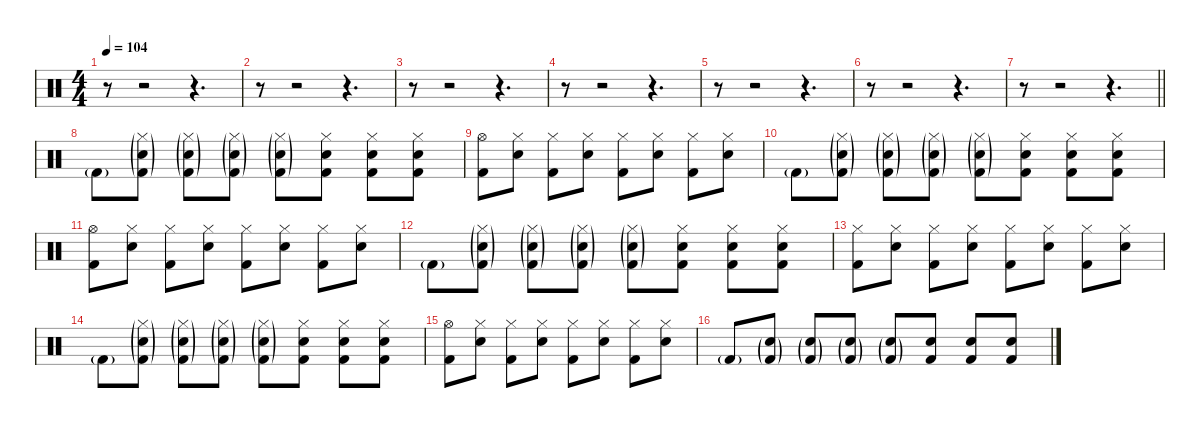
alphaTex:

\defaultSystemsLayout 4
\hideDynamics
\bracketExtendMode nobrackets
\singleTrackTrackNamePolicy hidden
\multiTrackTrackNamePolicy hidden
\firstSystemTrackNameMode fullname
\firstSystemTrackNameOrientation horizontal
\otherSystemsTrackNameOrientation horizontal
\track ("Drums" "drm.") {instrument percussion}
\staff {score}
\articulation defaults
\ts (4 4)
\tempo 104
\clef neutral
\ks c
r.8{dy f beam Down} r.2{beam Down} r.4{d beam Down} |
r.8{beam Down} r.2{beam Down} r.4{d beam Down} |
r.8{beam Down} r.2{beam Down} r.4{d beam Down} |
r.8{beam Down} r.2{beam Down} r.4{d beam Down} |
r.8{beam Down} r.2{beam Down} r.4{d beam Down} |
r.8{beam Down} r.2{beam Down} r.4{d beam Down} |
\barLineRight lightlight
r.8{beam Down} r.2{beam Down} r.4{d beam Down} |
\section ("" "")
"Kick (hit) 2"{g}.8{dy mp beam Down} ("Hi-Hat (closed)"{g} "Snare (hit) 2"{g} "Kick (hit) 2"{g}).8{beam Down} ("Hi-Hat (closed)"{g} "Snare (hit) 2"{g} "Kick (hit) 2"{g}).8{beam Down} ("Hi-Hat (closed)"{g} "Snare (hit) 2"{g} "Kick (hit) 2"{g}).8{dy mf beam Down} ("Hi-Hat (closed)"{g} "Snare (hit) 2"{g} "Kick (hit) 2"{g}).8{beam Down} ("Hi-Hat (closed)" "Snare (hit) 2" "Kick (hit) 2").8{beam Down} ("Hi-Hat (closed)" "Snare (hit) 2" "Kick (hit) 2").8{beam Down} ("Hi-Hat (closed)" "Snare (hit) 2" "Kick (hit) 2").8{beam Down} |
("Hi-Hat (open)" "Kick (hit) 2").8{dy f beam Down} ("Hi-Hat (closed)" "Snare (hit) 2").8{beam Down} ("Hi-Hat (closed)" "Kick (hit) 2").8{beam Down} ("Hi-Hat (closed)" "Snare (hit) 2").8{beam Down} ("Hi-Hat (closed)" "Kick (hit) 2").8{beam Down} ("Hi-Hat (closed)" "Snare (hit) 2").8{beam Down} ("Hi-Hat (closed)" "Kick (hit) 2").8{beam Down} ("Hi-Hat (closed)" "Snare (hit) 2").8{beam Down} |
"Kick (hit) 2"{g}.8{dy mp beam Down} ("Hi-Hat (closed)"{g} "Snare (hit) 2"{g} "Kick (hit) 2"{g}).8{beam Down} ("Hi-Hat (closed)"{g} "Snare (hit) 2"{g} "Kick (hit) 2"{g}).8{beam Down} ("Hi-Hat (closed)"{g} "Snare (hit) 2"{g} "Kick (hit) 2"{g}).8{dy mf beam Down} ("Hi-Hat (closed)"{g} "Snare (hit) 2"{g} "Kick (hit) 2"{g}).8{beam Down} ("Hi-Hat (closed)" "Snare (hit) 2" "Kick (hit) 2").8{beam Down} ("Hi-Hat (closed)" "Snare (hit) 2" "Kick (hit) 2").8{beam Down} ("Hi-Hat (closed)" "Snare (hit) 2" "Kick (hit) 2").8{beam Down} |
("Hi-Hat (open)" "Kick (hit) 2").8{dy f beam Down} ("Hi-Hat (closed)" "Snare (hit) 2").8{beam Down} ("Hi-Hat (closed)" "Kick (hit) 2").8{beam Down} ("Hi-Hat (closed)" "Snare (hit) 2").8{beam Down} ("Hi-Hat (closed)" "Kick (hit) 2").8{beam Down} ("Hi-Hat (closed)" "Snare (hit) 2").8{beam Down} ("Hi-Hat (closed)" "Kick (hit) 2").8{beam Down} ("Hi-Hat (closed)" "Snare (hit) 2").8{beam Down} |
"Kick (hit) 2"{g}.8{dy mp beam Down} ("Hi-Hat (closed)"{g} "Snare (hit) 2"{g} "Kick (hit) 2"{g}).8{beam Down} ("Hi-Hat (closed)"{g} "Snare (hit) 2"{g} "Kick (hit) 2"{g}).8{beam Down} ("Hi-Hat (closed)"{g} "Snare (hit) 2"{g} "Kick (hit) 2"{g}).8{dy mf beam Down} ("Hi-Hat (closed)"{g} "Snare (hit) 2"{g} "Kick (hit) 2"{g}).8{beam Down} ("Hi-Hat (closed)" "Snare (hit) 2" "Kick (hit) 2").8{beam Down} ("Hi-Hat (closed)" "Snare (hit) 2" "Kick (hit) 2").8{beam Down} ("Hi-Hat (closed)" "Snare (hit) 2" "Kick (hit) 2").8{beam Down} |
("Hi-Hat (closed)" "Kick (hit) 2").8{dy f beam Down} ("Hi-Hat (closed)" "Snare (hit) 2").8{beam Down} ("Hi-Hat (closed)" "Kick (hit) 2").8{beam Down} ("Hi-Hat (closed)" "Snare (hit) 2").8{beam Down} ("Hi-Hat (closed)" "Kick (hit) 2").8{beam Down} ("Hi-Hat (closed)" "Snare (hit) 2").8{beam Down} ("Hi-Hat (closed)" "Kick (hit) 2").8{beam Down} ("Hi-Hat (closed)" "Snare (hit) 2").8{beam Down} |
"Kick (hit) 2"{g}.8{dy mp beam Down} ("Hi-Hat (closed)"{g} "Snare (hit) 2"{g} "Kick (hit) 2"{g}).8{beam Down} ("Hi-Hat (closed)"{g} "Snare (hit) 2"{g} "Kick (hit) 2"{g}).8{beam Down} ("Hi-Hat (closed)"{g} "Snare (hit) 2"{g} "Kick (hit) 2"{g}).8{dy mf beam Down} ("Hi-Hat (closed)"{g} "Snare (hit) 2"{g} "Kick (hit) 2"{g}).8{beam Down} ("Hi-Hat (closed)" "Snare (hit) 2" "Kick (hit) 2").8{beam Down} ("Hi-Hat (closed)" "Snare (hit) 2" "Kick (hit) 2").8{beam Down} ("Hi-Hat (closed)" "Snare (hit) 2" "Kick (hit) 2").8{beam Down} |
("Hi-Hat (open)" "Kick (hit) 2").8{dy f beam Down} ("Hi-Hat (closed)" "Snare (hit) 2").8{beam Down} ("Hi-Hat (closed)" "Kick (hit) 2").8{beam Down} ("Hi-Hat (closed)" "Snare (hit) 2").8{beam Down} ("Hi-Hat (closed)" "Kick (hit) 2").8{beam Down} ("Hi-Hat (closed)" "Snare (hit) 2").8{beam Down} ("Hi-Hat (closed)" "Kick (hit) 2").8{beam Down} ("Hi-Hat (closed)" "Snare (hit) 2").8{beam Down} |
"Kick (hit) 2"{g}.8{dy mp beam Up} ("Snare (hit) 2"{g} "Kick (hit) 2"{g}).8{beam Up} ("Snare (hit) 2"{g} "Kick (hit) 2"{g}).8{beam Up} ("Snare (hit) 2"{g} "Kick (hit) 2"{g}).8{dy mf beam Up} ("Snare (hit) 2"{g} "Kick (hit) 2"{g}).8{beam Up} ("Snare (hit) 2" "Kick (hit) 2").8{beam Up} ("Snare (hit) 2" "Kick (hit) 2").8{beam Up} ("Snare (hit) 2" "Kick (hit) 2").8{beam Up}
